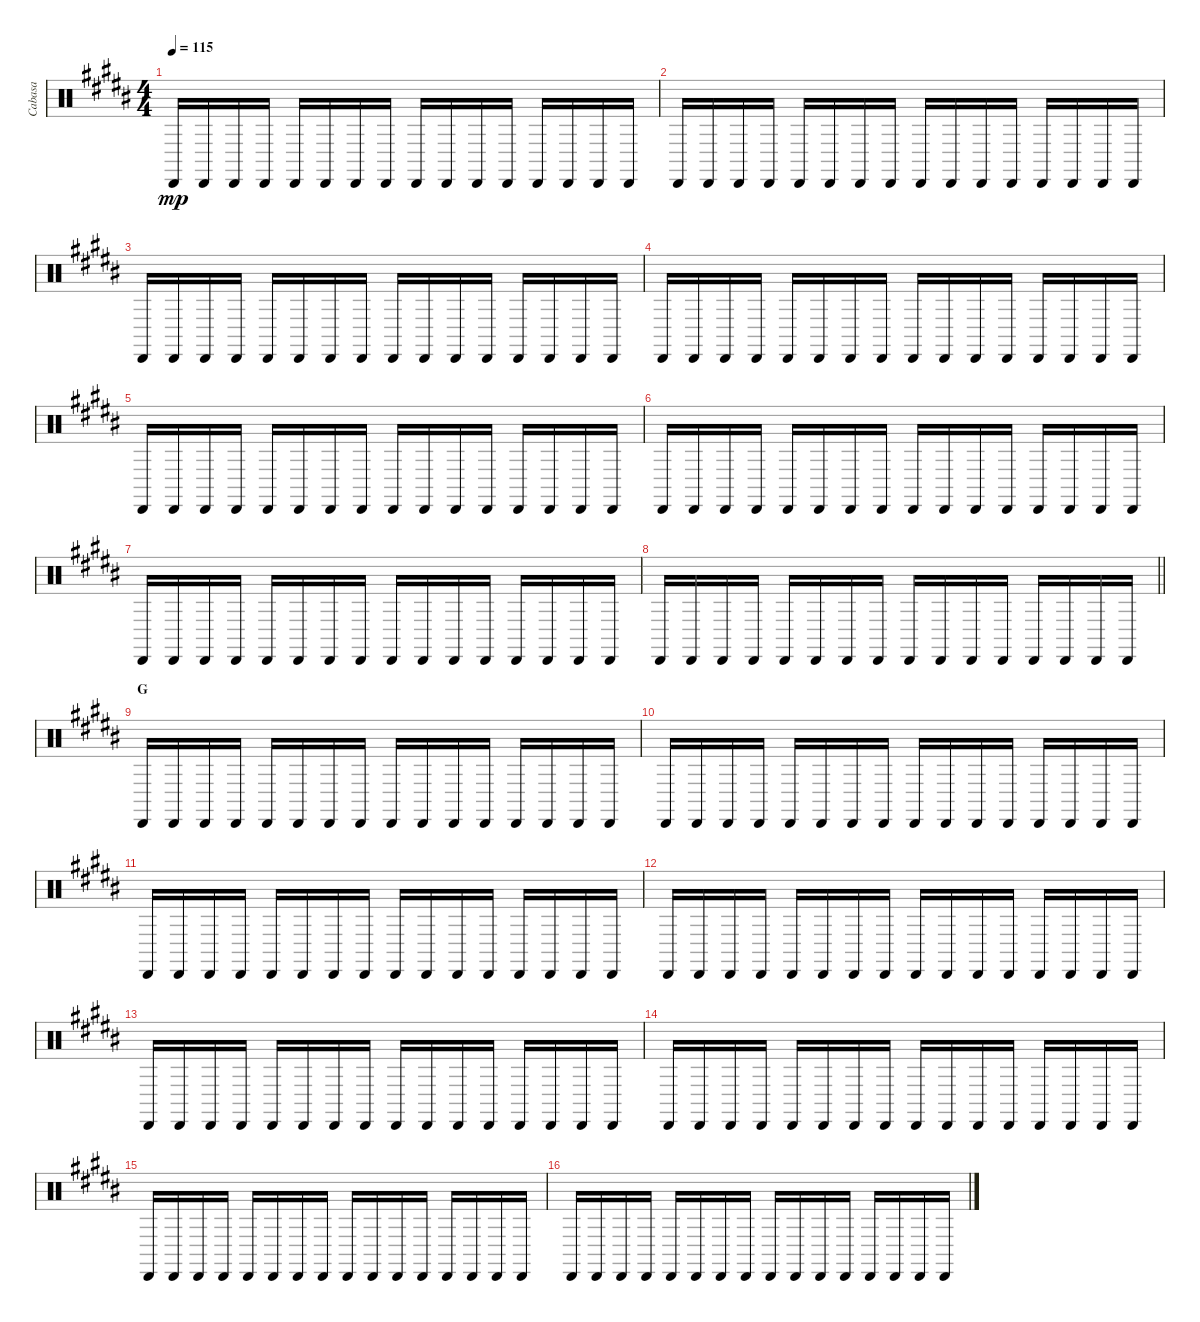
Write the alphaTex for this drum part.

\track ("Cabasa" "Cabasa") {instrument percussion}
\staff {score}
\articulation defaults
\ts (4 4)
\tempo 115
\clef neutral
\ks b "Cabasa (hit)".16{dy mp} "Cabasa (hit)".16 "Cabasa (hit)".16 "Cabasa (hit)".16 "Cabasa (hit)".16 "Cabasa (hit)".16 "Cabasa (hit)".16 "Cabasa (hit)".16 "Cabasa (hit)".16 "Cabasa (hit)".16 "Cabasa (hit)".16 "Cabasa (hit)".16 "Cabasa (hit)".16 "Cabasa (hit)".16 "Cabasa (hit)".16 "Cabasa (hit)".16
|
"Cabasa (hit)".16 "Cabasa (hit)".16 "Cabasa (hit)".16 "Cabasa (hit)".16 "Cabasa (hit)".16 "Cabasa (hit)".16 "Cabasa (hit)".16 "Cabasa (hit)".16 "Cabasa (hit)".16 "Cabasa (hit)".16 "Cabasa (hit)".16 "Cabasa (hit)".16 "Cabasa (hit)".16 "Cabasa (hit)".16 "Cabasa (hit)".16 "Cabasa (hit)".16 |
"Cabasa (hit)".16 "Cabasa (hit)".16 "Cabasa (hit)".16 "Cabasa (hit)".16 "Cabasa (hit)".16 "Cabasa (hit)".16 "Cabasa (hit)".16 "Cabasa (hit)".16 "Cabasa (hit)".16 "Cabasa (hit)".16 "Cabasa (hit)".16 "Cabasa (hit)".16 "Cabasa (hit)".16 "Cabasa (hit)".16 "Cabasa (hit)".16 "Cabasa (hit)".16 |
"Cabasa (hit)".16 "Cabasa (hit)".16 "Cabasa (hit)".16 "Cabasa (hit)".16 "Cabasa (hit)".16 "Cabasa (hit)".16 "Cabasa (hit)".16 "Cabasa (hit)".16 "Cabasa (hit)".16 "Cabasa (hit)".16 "Cabasa (hit)".16 "Cabasa (hit)".16 "Cabasa (hit)".16 "Cabasa (hit)".16 "Cabasa (hit)".16 "Cabasa (hit)".16 |
"Cabasa (hit)".16 "Cabasa (hit)".16 "Cabasa (hit)".16 "Cabasa (hit)".16 "Cabasa (hit)".16 "Cabasa (hit)".16 "Cabasa (hit)".16 "Cabasa (hit)".16 "Cabasa (hit)".16 "Cabasa (hit)".16 "Cabasa (hit)".16 "Cabasa (hit)".16 "Cabasa (hit)".16 "Cabasa (hit)".16 "Cabasa (hit)".16 "Cabasa (hit)".16 |
"Cabasa (hit)".16 "Cabasa (hit)".16 "Cabasa (hit)".16 "Cabasa (hit)".16 "Cabasa (hit)".16 "Cabasa (hit)".16 "Cabasa (hit)".16 "Cabasa (hit)".16 "Cabasa (hit)".16 "Cabasa (hit)".16 "Cabasa (hit)".16 "Cabasa (hit)".16 "Cabasa (hit)".16 "Cabasa (hit)".16 "Cabasa (hit)".16 "Cabasa (hit)".16 |
"Cabasa (hit)".16 "Cabasa (hit)".16 "Cabasa (hit)".16 "Cabasa (hit)".16 "Cabasa (hit)".16 "Cabasa (hit)".16 "Cabasa (hit)".16 "Cabasa (hit)".16 "Cabasa (hit)".16 "Cabasa (hit)".16 "Cabasa (hit)".16 "Cabasa (hit)".16 "Cabasa (hit)".16 "Cabasa (hit)".16 "Cabasa (hit)".16 "Cabasa (hit)".16 |
\barLineRight lightlight "Cabasa (hit)".16 "Cabasa (hit)".16 "Cabasa (hit)".16 "Cabasa (hit)".16 "Cabasa (hit)".16 "Cabasa (hit)".16 "Cabasa (hit)".16 "Cabasa (hit)".16 "Cabasa (hit)".16 "Cabasa (hit)".16 "Cabasa (hit)".16 "Cabasa (hit)".16 "Cabasa (hit)".16 "Cabasa (hit)".16 "Cabasa (hit)".16 "Cabasa (hit)".16
|
\section ("" "G")
"Cabasa (hit)".16 "Cabasa (hit)".16 "Cabasa (hit)".16 "Cabasa (hit)".16 "Cabasa (hit)".16 "Cabasa (hit)".16 "Cabasa (hit)".16 "Cabasa (hit)".16 "Cabasa (hit)".16 "Cabasa (hit)".16 "Cabasa (hit)".16 "Cabasa (hit)".16 "Cabasa (hit)".16 "Cabasa (hit)".16 "Cabasa (hit)".16 "Cabasa (hit)".16 |
"Cabasa (hit)".16 "Cabasa (hit)".16 "Cabasa (hit)".16 "Cabasa (hit)".16 "Cabasa (hit)".16 "Cabasa (hit)".16 "Cabasa (hit)".16 "Cabasa (hit)".16 "Cabasa (hit)".16 "Cabasa (hit)".16 "Cabasa (hit)".16 "Cabasa (hit)".16 "Cabasa (hit)".16 "Cabasa (hit)".16 "Cabasa (hit)".16 "Cabasa (hit)".16 |
"Cabasa (hit)".16 "Cabasa (hit)".16 "Cabasa (hit)".16 "Cabasa (hit)".16 "Cabasa (hit)".16 "Cabasa (hit)".16 "Cabasa (hit)".16 "Cabasa (hit)".16 "Cabasa (hit)".16 "Cabasa (hit)".16 "Cabasa (hit)".16 "Cabasa (hit)".16 "Cabasa (hit)".16 "Cabasa (hit)".16 "Cabasa (hit)".16 "Cabasa (hit)".16 |
"Cabasa (hit)".16 "Cabasa (hit)".16 "Cabasa (hit)".16 "Cabasa (hit)".16 "Cabasa (hit)".16 "Cabasa (hit)".16 "Cabasa (hit)".16 "Cabasa (hit)".16 "Cabasa (hit)".16 "Cabasa (hit)".16 "Cabasa (hit)".16 "Cabasa (hit)".16 "Cabasa (hit)".16 "Cabasa (hit)".16 "Cabasa (hit)".16 "Cabasa (hit)".16 |
"Cabasa (hit)".16 "Cabasa (hit)".16 "Cabasa (hit)".16 "Cabasa (hit)".16 "Cabasa (hit)".16 "Cabasa (hit)".16 "Cabasa (hit)".16 "Cabasa (hit)".16 "Cabasa (hit)".16 "Cabasa (hit)".16 "Cabasa (hit)".16 "Cabasa (hit)".16 "Cabasa (hit)".16 "Cabasa (hit)".16 "Cabasa (hit)".16 "Cabasa (hit)".16 |
"Cabasa (hit)".16 "Cabasa (hit)".16 "Cabasa (hit)".16 "Cabasa (hit)".16 "Cabasa (hit)".16 "Cabasa (hit)".16 "Cabasa (hit)".16 "Cabasa (hit)".16 "Cabasa (hit)".16 "Cabasa (hit)".16 "Cabasa (hit)".16 "Cabasa (hit)".16 "Cabasa (hit)".16 "Cabasa (hit)".16 "Cabasa (hit)".16 "Cabasa (hit)".16 |
"Cabasa (hit)".16 "Cabasa (hit)".16 "Cabasa (hit)".16 "Cabasa (hit)".16 "Cabasa (hit)".16 "Cabasa (hit)".16 "Cabasa (hit)".16 "Cabasa (hit)".16 "Cabasa (hit)".16 "Cabasa (hit)".16 "Cabasa (hit)".16 "Cabasa (hit)".16 "Cabasa (hit)".16 "Cabasa (hit)".16 "Cabasa (hit)".16 "Cabasa (hit)".16 |
"Cabasa (hit)".16 "Cabasa (hit)".16 "Cabasa (hit)".16 "Cabasa (hit)".16 "Cabasa (hit)".16 "Cabasa (hit)".16 "Cabasa (hit)".16 "Cabasa (hit)".16 "Cabasa (hit)".16 "Cabasa (hit)".16 "Cabasa (hit)".16 "Cabasa (hit)".16 "Cabasa (hit)".16 "Cabasa (hit)".16 "Cabasa (hit)".16 "Cabasa (hit)".16
